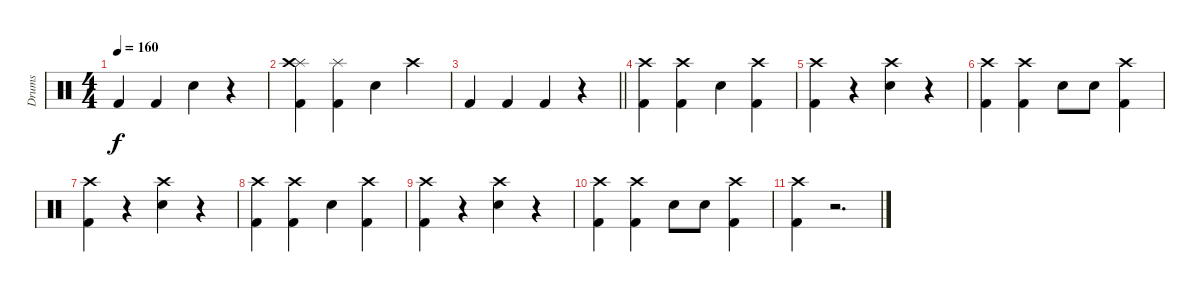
\track ("Drums" "Drums") {instrument percussion}
\staff {score}
\articulation defaults
\ts (4 4)
\tempo 160
\clef neutral
\ks c "Kick (hit) 2".4{dy f} "Kick (hit) 2".4 "Snare (hit) 2".4
r.4 |
("Kick (hit) 2" "Splash (hit)" "Crash high (hit)").4 ("Kick (hit) 2" "Splash (hit)").4 "Snare (hit) 2".4 "Crash high (hit)".4 |
\barLineRight lightlight "Kick (hit) 2".4 "Kick (hit) 2".4 "Kick (hit) 2".4
r.4 |
("Kick (hit) 2" "Crash high (hit)").4 ("Kick (hit) 2" "Crash high (hit)").4 "Snare (hit) 2".4 ("Kick (hit) 2" "Crash high (hit)").4 |
("Kick (hit) 2" "Crash high (hit)").4 r.4 ("Crash high (hit)" "Snare (hit) 2").4 r.4 |
("Kick (hit) 2" "Crash high (hit)").4 ("Kick (hit) 2" "Crash high (hit)").4 "Snare (hit) 2".8 "Snare (hit) 2".8 ("Kick (hit) 2" "Crash high (hit)").4 |
("Kick (hit) 2" "Crash high (hit)").4 r.4 ("Crash high (hit)" "Snare (hit) 2").4 r.4 |
("Kick (hit) 2" "Crash high (hit)").4 ("Kick (hit) 2" "Crash high (hit)").4 "Snare (hit) 2".4 ("Kick (hit) 2" "Crash high (hit)").4 |
("Kick (hit) 2" "Crash high (hit)").4 r.4 ("Crash high (hit)" "Snare (hit) 2").4 r.4 |
("Kick (hit) 2" "Crash high (hit)").4 ("Kick (hit) 2" "Crash high (hit)").4 "Snare (hit) 2".8 "Snare (hit) 2".8 ("Kick (hit) 2" "Crash high (hit)").4 |
("Kick (hit) 2" "Crash high (hit)").4 r.2{d}
